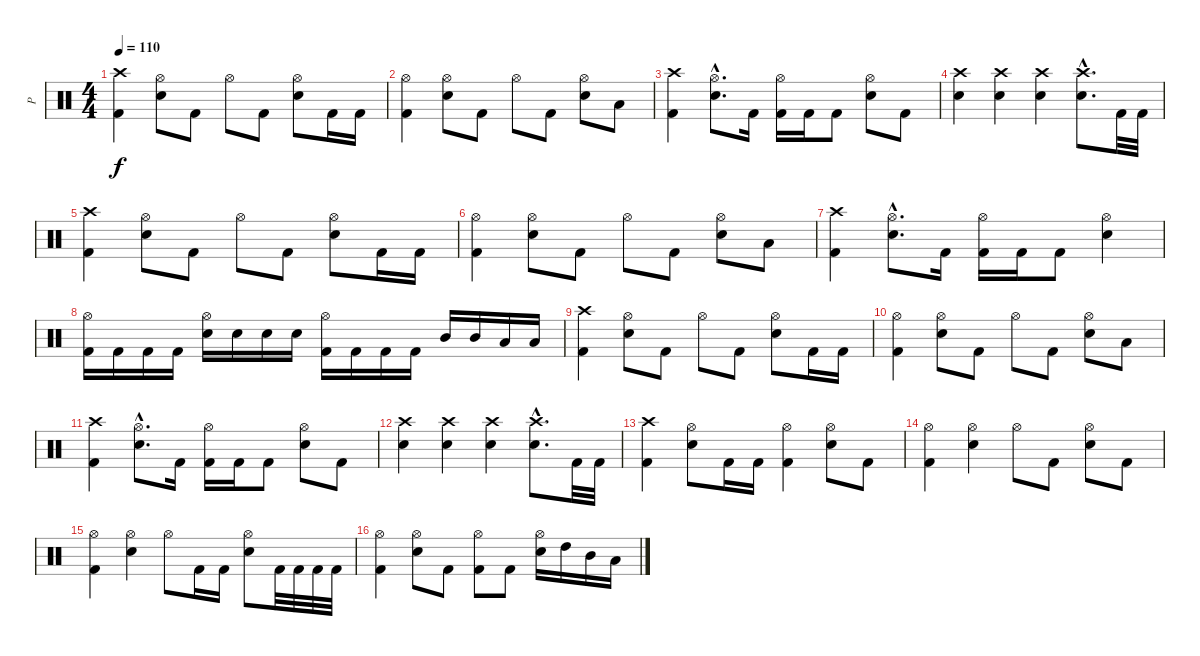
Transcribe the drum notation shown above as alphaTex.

\track ("P" "P") {instrument percussion}
\staff {score}
\articulation defaults
\ts (4 4)
\tempo 110
\clef neutral
\ks c
("Crash high (hit)" "Kick (hit) 2").4{dy f} ("Hi-Hat (open)" "Electric Snare (hit)").8 "Kick (hit) 2".8 "Hi-Hat (open)".8 "Kick (hit) 2".8 ("Hi-Hat (open)" "Electric Snare (hit)").8 "Kick (hit) 2".16 "Kick (hit) 2".16 |
("Hi-Hat (open)" "Kick (hit) 2").4 ("Hi-Hat (open)" "Electric Snare (hit)").8 "Kick (hit) 2".8 "Hi-Hat (open)".8 "Kick (hit) 2".8 ("Hi-Hat (open)" "Electric Snare (hit)").8 "Low Tom (hit)".8 |
("Crash high (hit)" "Kick (hit) 2").4 ("Hi-Hat (open)"{hac} "Electric Snare (hit)"{hac}).8{d} "Kick (hit) 2".16 ("Hi-Hat (open)" "Kick (hit) 2").16 "Kick (hit) 2".16 "Kick (hit) 2".8 ("Hi-Hat (open)" "Electric Snare (hit)").8 "Kick (hit) 2".8 |
("Crash high (hit)" "Electric Snare (hit)").4 ("Crash high (hit)" "Electric Snare (hit)").4 ("Crash high (hit)" "Electric Snare (hit)").4 ("Crash high (hit)"{hac} "Electric Snare (hit)"{hac}).8{d} "Kick (hit) 2".32 "Kick (hit) 2".32 |
("Crash high (hit)" "Kick (hit) 2").4 ("Hi-Hat (open)" "Electric Snare (hit)").8 "Kick (hit) 2".8 "Hi-Hat (open)".8 "Kick (hit) 2".8 ("Hi-Hat (open)" "Electric Snare (hit)").8 "Kick (hit) 2".16 "Kick (hit) 2".16 |
("Hi-Hat (open)" "Kick (hit) 2").4 ("Hi-Hat (open)" "Electric Snare (hit)").8 "Kick (hit) 2".8 "Hi-Hat (open)".8 "Kick (hit) 2".8 ("Hi-Hat (open)" "Electric Snare (hit)").8 "Low Tom (hit)".8 |
("Crash high (hit)" "Kick (hit) 2").4 ("Hi-Hat (open)"{hac} "Electric Snare (hit)"{hac}).8{d} "Kick (hit) 2".16 ("Hi-Hat (open)" "Kick (hit) 2").16 "Kick (hit) 2".16 "Kick (hit) 2".8 ("Hi-Hat (open)" "Electric Snare (hit)").4 |
("Hi-Hat (open)" "Kick (hit) 2").16 "Kick (hit) 2".16 "Kick (hit) 2".16 "Kick (hit) 2".16 ("Hi-Hat (open)" "Electric Snare (hit)").16 "Electric Snare (hit)".16 "Electric Snare (hit)".16 "Electric Snare (hit)".16 ("Hi-Hat (open)" "Kick (hit) 2").16 "Kick (hit) 2".16 "Kick (hit) 2".16 "Kick (hit) 2".16 "Mid Tom (hit)".16 "Mid Tom (hit)".16 "Low Tom (hit)".16 "Low Tom (hit)".16 |
("Crash high (hit)" "Kick (hit) 2").4 ("Hi-Hat (open)" "Electric Snare (hit)").8 "Kick (hit) 2".8 "Hi-Hat (open)".8 "Kick (hit) 2".8 ("Hi-Hat (open)" "Electric Snare (hit)").8 "Kick (hit) 2".16 "Kick (hit) 2".16 |
("Hi-Hat (open)" "Kick (hit) 2").4 ("Hi-Hat (open)" "Electric Snare (hit)").8 "Kick (hit) 2".8 "Hi-Hat (open)".8 "Kick (hit) 2".8 ("Hi-Hat (open)" "Electric Snare (hit)").8 "Low Tom (hit)".8 |
("Crash high (hit)" "Kick (hit) 2").4 ("Hi-Hat (open)"{hac} "Electric Snare (hit)"{hac}).8{d} "Kick (hit) 2".16 ("Hi-Hat (open)" "Kick (hit) 2").16 "Kick (hit) 2".16 "Kick (hit) 2".8 ("Hi-Hat (open)" "Electric Snare (hit)").8 "Kick (hit) 2".8 |
("Crash high (hit)" "Electric Snare (hit)").4 ("Crash high (hit)" "Electric Snare (hit)").4 ("Crash high (hit)" "Electric Snare (hit)").4 ("Crash high (hit)"{hac} "Electric Snare (hit)"{hac}).8{d} "Kick (hit) 2".32 "Kick (hit) 2".32 |
\section ("" "")
("Crash high (hit)" "Kick (hit) 2").4 ("Hi-Hat (open)" "Electric Snare (hit)").8 "Kick (hit) 2".16 "Kick (hit) 2".16 ("Hi-Hat (open)" "Kick (hit) 2").4 ("Hi-Hat (open)" "Electric Snare (hit)").8 "Kick (hit) 2".8 |
("Hi-Hat (open)" "Kick (hit) 2").4 ("Hi-Hat (open)" "Electric Snare (hit)").4 "Hi-Hat (open)".8 "Kick (hit) 2".8 ("Hi-Hat (open)" "Electric Snare (hit)").8 "Kick (hit) 2".8 |
("Hi-Hat (open)" "Kick (hit) 2").4 ("Hi-Hat (open)" "Electric Snare (hit)").4 "Hi-Hat (open)".8 "Kick (hit) 2".16 "Kick (hit) 2".16 ("Hi-Hat (open)" "Electric Snare (hit)").8 "Kick (hit) 2".32 "Kick (hit) 2".32 "Kick (hit) 2".32 "Kick (hit) 2".32 |
("Hi-Hat (open)" "Kick (hit) 2").4 ("Hi-Hat (open)" "Electric Snare (hit)").8 "Kick (hit) 2".8 ("Hi-Hat (open)" "Kick (hit) 2").8 "Kick (hit) 2".8 ("Hi-Hat (open)" "Electric Snare (hit)").16 "High Tom (hit)".16 "Mid Tom (hit)".16 "Low Tom (hit)".16
